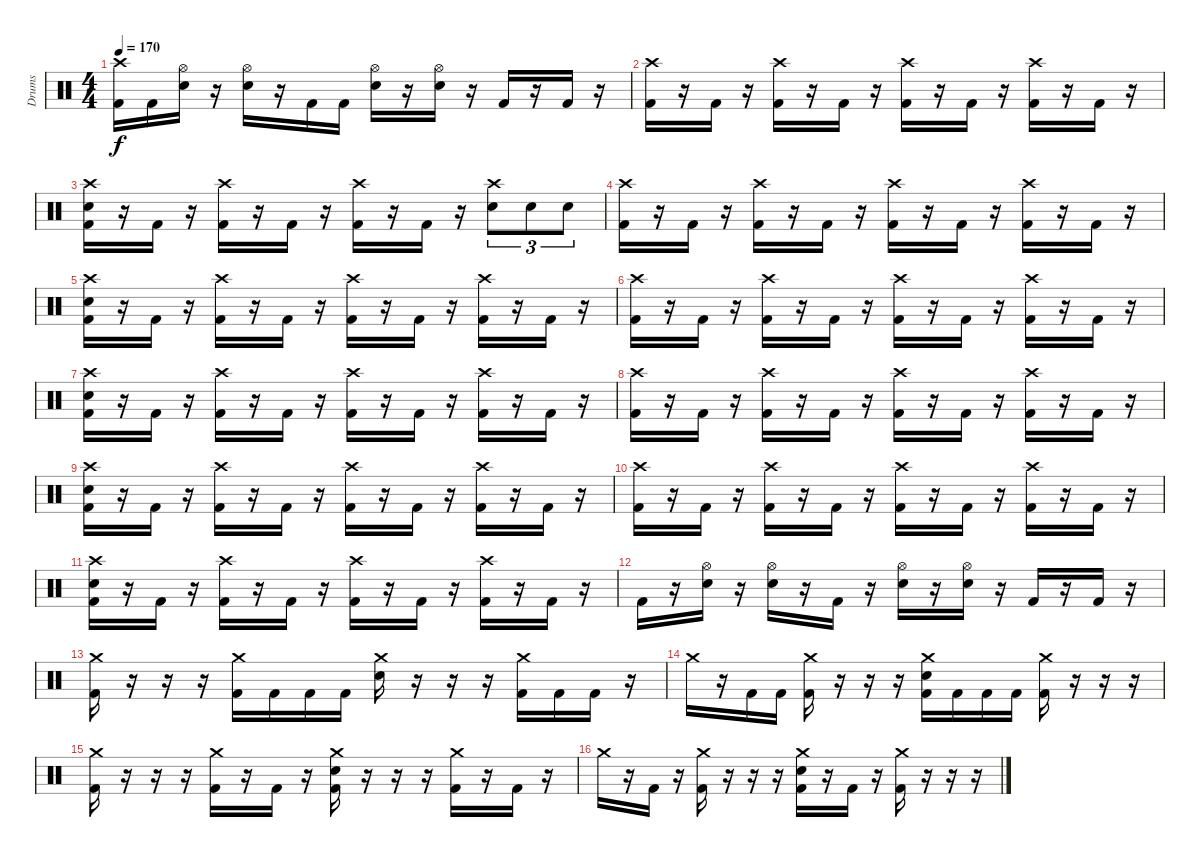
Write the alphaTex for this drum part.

\track ("Drums" "Drums") {instrument percussion}
\staff {score}
\articulation defaults
\ts (4 4)
\tempo 170
\clef neutral
\ks c
("Crash high (hit)" "Kick (hit) 2").16{dy f} "Kick (hit) 2".16 ("Hi-Hat (open)" "Electric Snare (hit)").16 r.16 ("Hi-Hat (open)" "Electric Snare (hit)").16 r.16 "Kick (hit) 2".16 "Kick (hit) 2".16 ("Hi-Hat (open)" "Electric Snare (hit)").16 r.16 ("Hi-Hat (open)" "Electric Snare (hit)").16 r.16 "Kick (hit) 2".16 r.16 "Kick (hit) 2".16 r.16 |
("Crash high (hit)" "Kick (hit) 2").16 r.16 "Kick (hit) 2".16 r.16 ("Crash high (hit)" "Kick (hit) 2").16 r.16 "Kick (hit) 2".16 r.16 ("Crash high (hit)" "Kick (hit) 2").16 r.16 "Kick (hit) 2".16 r.16 ("Crash high (hit)" "Kick (hit) 2").16 r.16 "Kick (hit) 2".16 r.16 |
("Crash high (hit)" "Electric Snare (hit)" "Kick (hit) 2").16 r.16 "Kick (hit) 2".16 r.16 ("Crash high (hit)" "Kick (hit) 2").16 r.16 "Kick (hit) 2".16 r.16 ("Crash high (hit)" "Kick (hit) 2").16 r.16 "Kick (hit) 2".16 r.16 ("Crash high (hit)" "Electric Snare (hit)").8{tu (3 2)} "Electric Snare (hit)".8{tu (3 2)} "Electric Snare (hit)".8{tu (3 2)} |
("Crash high (hit)" "Kick (hit) 2").16 r.16 "Kick (hit) 2".16 r.16 ("Crash high (hit)" "Kick (hit) 2").16 r.16 "Kick (hit) 2".16 r.16 ("Crash high (hit)" "Kick (hit) 2").16 r.16 "Kick (hit) 2".16 r.16 ("Crash high (hit)" "Kick (hit) 2").16 r.16 "Kick (hit) 2".16 r.16 |
("Crash high (hit)" "Electric Snare (hit)" "Kick (hit) 2").16 r.16 "Kick (hit) 2".16 r.16 ("Crash high (hit)" "Kick (hit) 2").16 r.16 "Kick (hit) 2".16 r.16 ("Crash high (hit)" "Kick (hit) 2").16 r.16 "Kick (hit) 2".16 r.16 ("Crash high (hit)" "Kick (hit) 2").16 r.16 "Kick (hit) 2".16 r.16 |
("Crash high (hit)" "Kick (hit) 2").16 r.16 "Kick (hit) 2".16 r.16 ("Crash high (hit)" "Kick (hit) 2").16 r.16 "Kick (hit) 2".16 r.16 ("Crash high (hit)" "Kick (hit) 2").16 r.16 "Kick (hit) 2".16 r.16 ("Crash high (hit)" "Kick (hit) 2").16 r.16 "Kick (hit) 2".16 r.16 |
("Crash high (hit)" "Electric Snare (hit)" "Kick (hit) 2").16 r.16 "Kick (hit) 2".16 r.16 ("Crash high (hit)" "Kick (hit) 2").16 r.16 "Kick (hit) 2".16 r.16 ("Crash high (hit)" "Kick (hit) 2").16 r.16 "Kick (hit) 2".16 r.16 ("Crash high (hit)" "Kick (hit) 2").16 r.16 "Kick (hit) 2".16 r.16 |
("Crash high (hit)" "Kick (hit) 2").16 r.16 "Kick (hit) 2".16 r.16 ("Crash high (hit)" "Kick (hit) 2").16 r.16 "Kick (hit) 2".16 r.16 ("Crash high (hit)" "Kick (hit) 2").16 r.16 "Kick (hit) 2".16 r.16 ("Crash high (hit)" "Kick (hit) 2").16 r.16 "Kick (hit) 2".16 r.16 |
("Crash high (hit)" "Electric Snare (hit)" "Kick (hit) 2").16 r.16 "Kick (hit) 2".16 r.16 ("Crash high (hit)" "Kick (hit) 2").16 r.16 "Kick (hit) 2".16 r.16 ("Crash high (hit)" "Kick (hit) 2").16 r.16 "Kick (hit) 2".16 r.16 ("Crash high (hit)" "Kick (hit) 2").16 r.16 "Kick (hit) 2".16 r.16 |
("Crash high (hit)" "Kick (hit) 2").16 r.16 "Kick (hit) 2".16 r.16 ("Crash high (hit)" "Kick (hit) 2").16 r.16 "Kick (hit) 2".16 r.16 ("Crash high (hit)" "Kick (hit) 2").16 r.16 "Kick (hit) 2".16 r.16 ("Crash high (hit)" "Kick (hit) 2").16 r.16 "Kick (hit) 2".16 r.16 |
("Crash high (hit)" "Electric Snare (hit)" "Kick (hit) 2").16 r.16 "Kick (hit) 2".16 r.16 ("Crash high (hit)" "Kick (hit) 2").16 r.16 "Kick (hit) 2".16 r.16 ("Crash high (hit)" "Kick (hit) 2").16 r.16 "Kick (hit) 2".16 r.16 ("Crash high (hit)" "Kick (hit) 2").16 r.16 "Kick (hit) 2".16 r.16 |
"Kick (hit) 2".16 r.16 ("Hi-Hat (open)" "Electric Snare (hit)").16 r.16 ("Hi-Hat (open)" "Electric Snare (hit)").16 r.16 "Kick (hit) 2".16 r.16 ("Hi-Hat (open)" "Electric Snare (hit)").16 r.16 ("Hi-Hat (open)" "Electric Snare (hit)").16 r.16 "Kick (hit) 2".16 r.16 "Kick (hit) 2".16 r.16 |
("Crash medium (hit)" "Kick (hit) 2").16 r.16 r.16 r.16 ("Crash medium (hit)" "Kick (hit) 2").16 "Kick (hit) 2".16 "Kick (hit) 2".16 "Kick (hit) 2".16 ("Crash medium (hit)" "Electric Snare (hit)").16 r.16 r.16 r.16 ("Crash medium (hit)" "Kick (hit) 2").16 "Kick (hit) 2".16 "Kick (hit) 2".16 r.16 |
"Crash medium (hit)".16 r.16 "Kick (hit) 2".16 "Kick (hit) 2".16 ("Crash medium (hit)" "Kick (hit) 2").16 r.16 r.16 r.16 ("Crash medium (hit)" "Electric Snare (hit)" "Kick (hit) 2").16 "Kick (hit) 2".16 "Kick (hit) 2".16 "Kick (hit) 2".16 ("Crash medium (hit)" "Kick (hit) 2").16 r.16 r.16 r.16 |
("Crash medium (hit)" "Kick (hit) 2").16 r.16 r.16 r.16 ("Crash medium (hit)" "Kick (hit) 2").16 r.16 "Kick (hit) 2".16 r.16 ("Crash medium (hit)" "Electric Snare (hit)" "Kick (hit) 2").16 r.16 r.16 r.16 ("Crash medium (hit)" "Kick (hit) 2").16 r.16 "Kick (hit) 2".16 r.16 |
"Crash medium (hit)".16 r.16 "Kick (hit) 2".16 r.16 ("Crash medium (hit)" "Kick (hit) 2").16 r.16 r.16 r.16 ("Crash medium (hit)" "Electric Snare (hit)" "Kick (hit) 2").16 r.16 "Kick (hit) 2".16 r.16 ("Crash medium (hit)" "Kick (hit) 2").16 r.16 r.16 r.16
